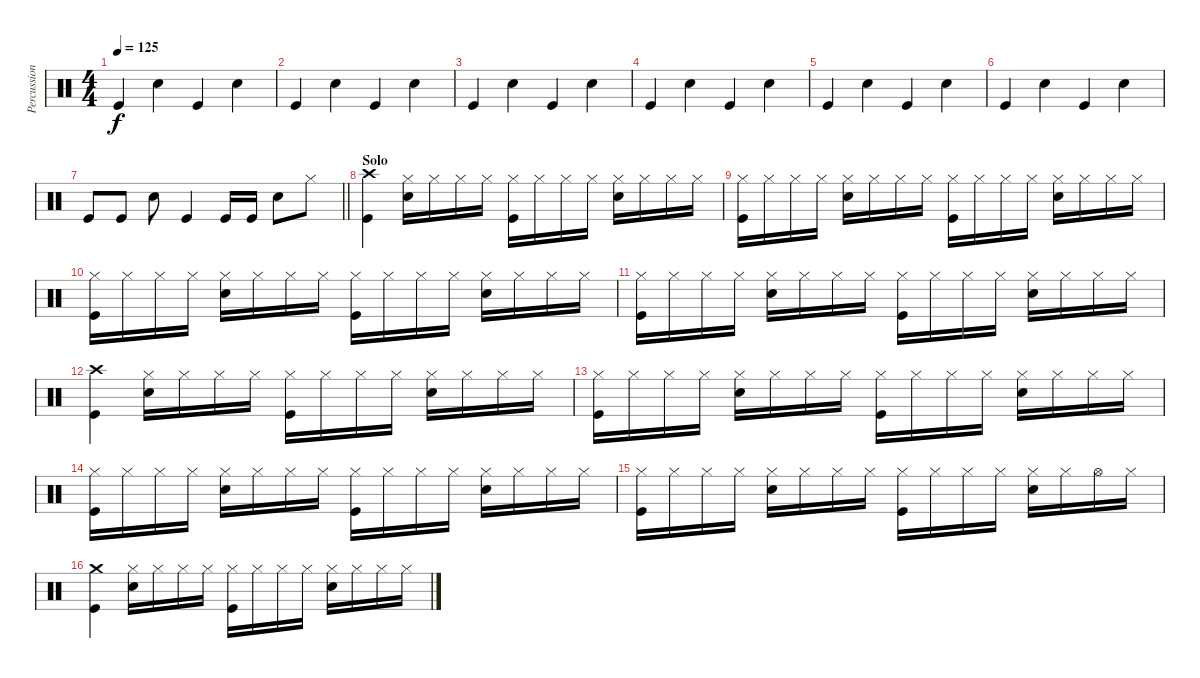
\track ("Percussion" "Percussion") {instrument percussion}
\staff {score}
\articulation defaults
\ts (4 4)
\tempo 125
\clef neutral
\ks c "Kick (hit)".4{dy f} "Snare (hit) 2".4 "Kick (hit)".4 "Snare (hit) 2".4
|
"Kick (hit)".4 "Snare (hit) 2".4 "Kick (hit)".4 "Snare (hit) 2".4 |
"Kick (hit)".4 "Snare (hit) 2".4 "Kick (hit)".4 "Snare (hit) 2".4 |
"Kick (hit)".4 "Snare (hit) 2".4 "Kick (hit)".4 "Snare (hit) 2".4 |
"Kick (hit)".4 "Snare (hit) 2".4 "Kick (hit)".4 "Snare (hit) 2".4 |
"Kick (hit)".4 "Snare (hit) 2".4 "Kick (hit)".4 "Snare (hit) 2".4 |
\barLineRight lightlight "Kick (hit)".8 "Kick (hit)".8 "Snare (hit) 2".8 "Kick (hit)".4 "Kick (hit)".16 "Kick (hit)".16 "Snare (hit) 2".8 "Hi-Hat (closed)".8
|
\section ("" "Solo")
("Kick (hit)" "Crash high (hit)").4 ("Hi-Hat (closed)" "Snare (hit) 2").16 "Hi-Hat (closed)".16 "Hi-Hat (closed)".16 "Hi-Hat (closed)".16 ("Kick (hit)" "Hi-Hat (closed)").16 "Hi-Hat (closed)".16 "Hi-Hat (closed)".16 "Hi-Hat (closed)".16 ("Hi-Hat (closed)" "Snare (hit) 2").16 "Hi-Hat (closed)".16 "Hi-Hat (closed)".16 "Hi-Hat (closed)".16 |
("Kick (hit)" "Hi-Hat (closed)").16 "Hi-Hat (closed)".16 "Hi-Hat (closed)".16 "Hi-Hat (closed)".16 ("Hi-Hat (closed)" "Snare (hit) 2").16 "Hi-Hat (closed)".16 "Hi-Hat (closed)".16 "Hi-Hat (closed)".16 ("Kick (hit)" "Hi-Hat (closed)").16 "Hi-Hat (closed)".16 "Hi-Hat (closed)".16 "Hi-Hat (closed)".16 ("Hi-Hat (closed)" "Snare (hit) 2").16 "Hi-Hat (closed)".16 "Hi-Hat (closed)".16 "Hi-Hat (closed)".16 |
("Kick (hit)" "Hi-Hat (closed)").16 "Hi-Hat (closed)".16 "Hi-Hat (closed)".16 "Hi-Hat (closed)".16 ("Hi-Hat (closed)" "Snare (hit) 2").16 "Hi-Hat (closed)".16 "Hi-Hat (closed)".16 "Hi-Hat (closed)".16 ("Kick (hit)" "Hi-Hat (closed)").16 "Hi-Hat (closed)".16 "Hi-Hat (closed)".16 "Hi-Hat (closed)".16 ("Hi-Hat (closed)" "Snare (hit) 2").16 "Hi-Hat (closed)".16 "Hi-Hat (closed)".16 "Hi-Hat (closed)".16 |
("Kick (hit)" "Hi-Hat (closed)").16 "Hi-Hat (closed)".16 "Hi-Hat (closed)".16 "Hi-Hat (closed)".16 ("Hi-Hat (closed)" "Snare (hit) 2").16 "Hi-Hat (closed)".16 "Hi-Hat (closed)".16 "Hi-Hat (closed)".16 ("Kick (hit)" "Hi-Hat (closed)").16 "Hi-Hat (closed)".16 "Hi-Hat (closed)".16 "Hi-Hat (closed)".16 ("Hi-Hat (closed)" "Snare (hit) 2").16 "Hi-Hat (closed)".16 "Hi-Hat (closed)".16 "Hi-Hat (closed)".16 |
("Kick (hit)" "Crash high (hit)").4 ("Hi-Hat (closed)" "Snare (hit) 2").16 "Hi-Hat (closed)".16 "Hi-Hat (closed)".16 "Hi-Hat (closed)".16 ("Kick (hit)" "Hi-Hat (closed)").16 "Hi-Hat (closed)".16 "Hi-Hat (closed)".16 "Hi-Hat (closed)".16 ("Hi-Hat (closed)" "Snare (hit) 2").16 "Hi-Hat (closed)".16 "Hi-Hat (closed)".16 "Hi-Hat (closed)".16 |
("Kick (hit)" "Hi-Hat (closed)").16 "Hi-Hat (closed)".16 "Hi-Hat (closed)".16 "Hi-Hat (closed)".16 ("Hi-Hat (closed)" "Snare (hit) 2").16 "Hi-Hat (closed)".16 "Hi-Hat (closed)".16 "Hi-Hat (closed)".16 ("Kick (hit)" "Hi-Hat (closed)").16 "Hi-Hat (closed)".16 "Hi-Hat (closed)".16 "Hi-Hat (closed)".16 ("Hi-Hat (closed)" "Snare (hit) 2").16 "Hi-Hat (closed)".16 "Hi-Hat (closed)".16 "Hi-Hat (closed)".16 |
("Kick (hit)" "Hi-Hat (closed)").16 "Hi-Hat (closed)".16 "Hi-Hat (closed)".16 "Hi-Hat (closed)".16 ("Hi-Hat (closed)" "Snare (hit) 2").16 "Hi-Hat (closed)".16 "Hi-Hat (closed)".16 "Hi-Hat (closed)".16 ("Kick (hit)" "Hi-Hat (closed)").16 "Hi-Hat (closed)".16 "Hi-Hat (closed)".16 "Hi-Hat (closed)".16 ("Hi-Hat (closed)" "Snare (hit) 2").16 "Hi-Hat (closed)".16 "Hi-Hat (closed)".16 "Hi-Hat (closed)".16 |
("Kick (hit)" "Hi-Hat (closed)").16 "Hi-Hat (closed)".16 "Hi-Hat (closed)".16 "Hi-Hat (closed)".16 ("Hi-Hat (closed)" "Snare (hit) 2").16 "Hi-Hat (closed)".16 "Hi-Hat (closed)".16 "Hi-Hat (closed)".16 ("Kick (hit)" "Hi-Hat (closed)").16 "Hi-Hat (closed)".16 "Hi-Hat (closed)".16 "Hi-Hat (closed)".16 ("Hi-Hat (closed)" "Snare (hit) 2").16 "Hi-Hat (closed)".16 "Hi-Hat (open)".16 "Hi-Hat (closed)".16 |
("Kick (hit)" "Crash medium (hit)").4 ("Hi-Hat (closed)" "Snare (hit) 2").16 "Hi-Hat (closed)".16 "Hi-Hat (closed)".16 "Hi-Hat (closed)".16 ("Kick (hit)" "Hi-Hat (closed)").16 "Hi-Hat (closed)".16 "Hi-Hat (closed)".16 "Hi-Hat (closed)".16 ("Hi-Hat (closed)" "Snare (hit) 2").16 "Hi-Hat (closed)".16 "Hi-Hat (closed)".16 "Hi-Hat (closed)".16
